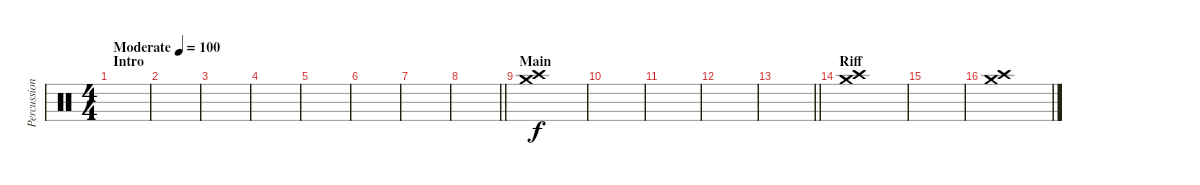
\track ("Percussion" "Percussion") {instrument percussion}
\staff {score}
\articulation defaults
\ts (4 4)
\section ("" "Intro")
\tempo (100 "Moderate")
\clef neutral
\ks c
|
|
|
|
|
|
|
\barLineRight lightlight
|
\section ("" "Main")
("Crash high (hit)" "Crash medium (hit)").1 |
|
|
|
\barLineRight lightlight
|
\section ("" "Riff")
("Crash medium (hit)" "Crash high (hit)").1 |
|
("Crash high (hit)" "Crash medium (hit)").1
